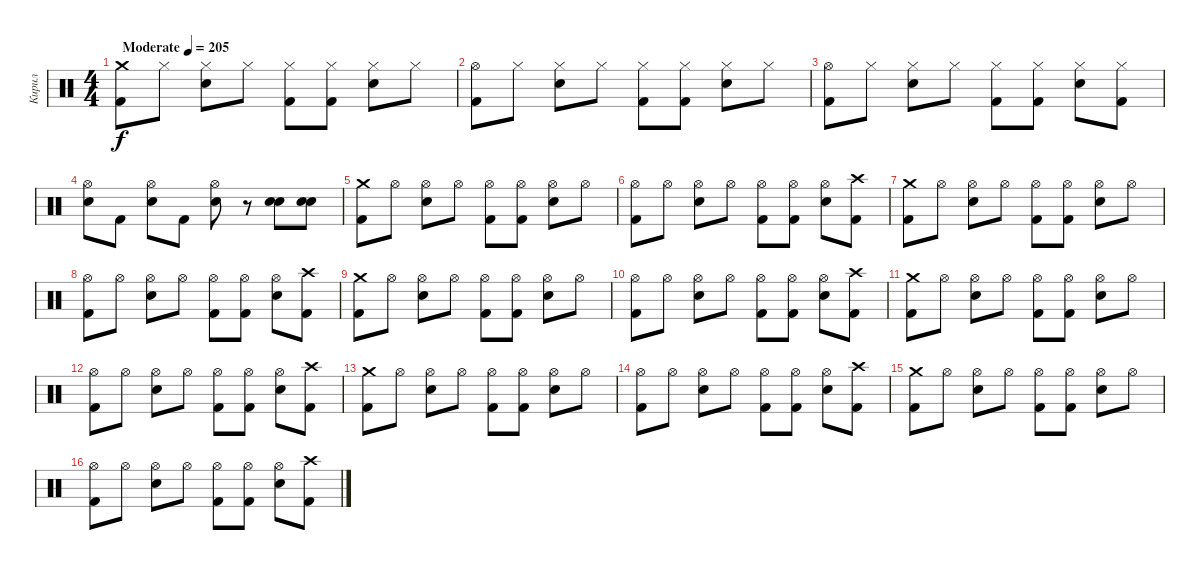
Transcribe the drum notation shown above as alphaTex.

\track ("Кирил" "Кирил") {instrument percussion}
\staff {score}
\articulation defaults
\ts (4 4)
\tempo (205 "Moderate")
\clef neutral
\ks c
("Crash medium (hit)" "Kick (hit) 2").8{dy f} "Hi-Hat (closed)".8 ("Hi-Hat (closed)" "Electric Snare (hit)").8 "Hi-Hat (closed)".8 ("Hi-Hat (closed)" "Kick (hit) 2").8 ("Hi-Hat (closed)" "Kick (hit) 2").8 ("Hi-Hat (closed)" "Electric Snare (hit)").8 "Hi-Hat (closed)".8 |
("Hi-Hat (open)" "Kick (hit) 2").8 "Hi-Hat (closed)".8 ("Hi-Hat (closed)" "Electric Snare (hit)").8 "Hi-Hat (closed)".8 ("Hi-Hat (closed)" "Kick (hit) 2").8 ("Hi-Hat (closed)" "Kick (hit) 2").8 ("Hi-Hat (closed)" "Electric Snare (hit)").8 "Hi-Hat (closed)".8 |
("Hi-Hat (open)" "Kick (hit) 2").8 "Hi-Hat (closed)".8 ("Hi-Hat (closed)" "Electric Snare (hit)").8 "Hi-Hat (closed)".8 ("Hi-Hat (closed)" "Kick (hit) 2").8 ("Hi-Hat (closed)" "Kick (hit) 2").8 ("Hi-Hat (closed)" "Electric Snare (hit)").8 ("Hi-Hat (closed)" "Kick (hit) 2").8 |
("Hi-Hat (open)" "Electric Snare (hit)").8 "Kick (hit) 2".8 ("Hi-Hat (open)" "Electric Snare (hit)").8 "Kick (hit) 2".8 ("Hi-Hat (open)" "Electric Snare (hit)").8 r.8 ("Electric Snare (hit)" "Electric Snare (hit)").8 ("Electric Snare (hit)" "Electric Snare (hit)").8 |
("Crash medium (hit)" "Kick (hit) 2").8 "Hi-Hat (open)".8 ("Hi-Hat (open)" "Electric Snare (hit)").8 "Hi-Hat (open)".8 ("Hi-Hat (open)" "Kick (hit) 2").8 ("Hi-Hat (open)" "Kick (hit) 2").8 ("Hi-Hat (open)" "Electric Snare (hit)").8 "Hi-Hat (open)".8 |
("Hi-Hat (open)" "Kick (hit) 2").8 "Hi-Hat (open)".8 ("Hi-Hat (open)" "Electric Snare (hit)").8 "Hi-Hat (open)".8 ("Hi-Hat (open)" "Kick (hit) 2").8 ("Hi-Hat (open)" "Kick (hit) 2").8 ("Hi-Hat (open)" "Electric Snare (hit)").8 ("Crash high (hit)" "Kick (hit) 2").8 |
("Crash medium (hit)" "Kick (hit) 2").8 "Hi-Hat (open)".8 ("Hi-Hat (open)" "Electric Snare (hit)").8 "Hi-Hat (open)".8 ("Hi-Hat (open)" "Kick (hit) 2").8 ("Hi-Hat (open)" "Kick (hit) 2").8 ("Hi-Hat (open)" "Electric Snare (hit)").8 "Hi-Hat (open)".8 |
("Hi-Hat (open)" "Kick (hit) 2").8 "Hi-Hat (open)".8 ("Hi-Hat (open)" "Electric Snare (hit)").8 "Hi-Hat (open)".8 ("Hi-Hat (open)" "Kick (hit) 2").8 ("Hi-Hat (open)" "Kick (hit) 2").8 ("Hi-Hat (open)" "Electric Snare (hit)").8 ("Crash high (hit)" "Kick (hit) 2").8 |
("Crash medium (hit)" "Kick (hit) 2").8 "Hi-Hat (open)".8 ("Hi-Hat (open)" "Electric Snare (hit)").8 "Hi-Hat (open)".8 ("Hi-Hat (open)" "Kick (hit) 2").8 ("Hi-Hat (open)" "Kick (hit) 2").8 ("Hi-Hat (open)" "Electric Snare (hit)").8 "Hi-Hat (open)".8 |
("Hi-Hat (open)" "Kick (hit) 2").8 "Hi-Hat (open)".8 ("Hi-Hat (open)" "Electric Snare (hit)").8 "Hi-Hat (open)".8 ("Hi-Hat (open)" "Kick (hit) 2").8 ("Hi-Hat (open)" "Kick (hit) 2").8 ("Hi-Hat (open)" "Electric Snare (hit)").8 ("Crash high (hit)" "Kick (hit) 2").8 |
("Crash medium (hit)" "Kick (hit) 2").8 "Hi-Hat (open)".8 ("Hi-Hat (open)" "Electric Snare (hit)").8 "Hi-Hat (open)".8 ("Hi-Hat (open)" "Kick (hit) 2").8 ("Hi-Hat (open)" "Kick (hit) 2").8 ("Hi-Hat (open)" "Electric Snare (hit)").8 "Hi-Hat (open)".8 |
("Hi-Hat (open)" "Kick (hit) 2").8 "Hi-Hat (open)".8 ("Hi-Hat (open)" "Electric Snare (hit)").8 "Hi-Hat (open)".8 ("Hi-Hat (open)" "Kick (hit) 2").8 ("Hi-Hat (open)" "Kick (hit) 2").8 ("Hi-Hat (open)" "Electric Snare (hit)").8 ("Crash high (hit)" "Kick (hit) 2").8 |
("Crash medium (hit)" "Kick (hit) 2").8 "Hi-Hat (open)".8 ("Hi-Hat (open)" "Electric Snare (hit)").8 "Hi-Hat (open)".8 ("Hi-Hat (open)" "Kick (hit) 2").8 ("Hi-Hat (open)" "Kick (hit) 2").8 ("Hi-Hat (open)" "Electric Snare (hit)").8 "Hi-Hat (open)".8 |
("Hi-Hat (open)" "Kick (hit) 2").8 "Hi-Hat (open)".8 ("Hi-Hat (open)" "Electric Snare (hit)").8 "Hi-Hat (open)".8 ("Hi-Hat (open)" "Kick (hit) 2").8 ("Hi-Hat (open)" "Kick (hit) 2").8 ("Hi-Hat (open)" "Electric Snare (hit)").8 ("Crash high (hit)" "Kick (hit) 2").8 |
("Crash medium (hit)" "Kick (hit) 2").8 "Hi-Hat (open)".8 ("Hi-Hat (open)" "Electric Snare (hit)").8 "Hi-Hat (open)".8 ("Hi-Hat (open)" "Kick (hit) 2").8 ("Hi-Hat (open)" "Kick (hit) 2").8 ("Hi-Hat (open)" "Electric Snare (hit)").8 "Hi-Hat (open)".8 |
("Hi-Hat (open)" "Kick (hit) 2").8 "Hi-Hat (open)".8 ("Hi-Hat (open)" "Electric Snare (hit)").8 "Hi-Hat (open)".8 ("Hi-Hat (open)" "Kick (hit) 2").8 ("Hi-Hat (open)" "Kick (hit) 2").8 ("Hi-Hat (open)" "Electric Snare (hit)").8 ("Crash high (hit)" "Kick (hit) 2").8
